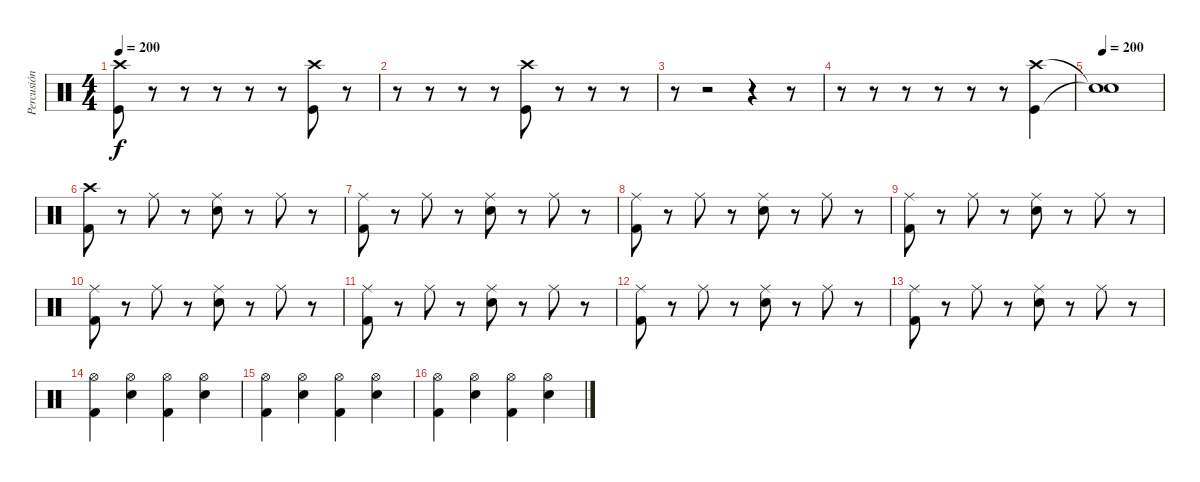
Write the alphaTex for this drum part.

\track ("Percusión" "Percusión") {instrument percussion}
\staff {score}
\articulation defaults
\ts (4 4)
\tempo 200
\clef neutral
\ks c
("Kick (hit)" "Crash high (hit)").8{dy f} r.8 r.8 r.8 r.8 r.8 ("Kick (hit)" "Crash high (hit)").8 r.8 |
r.8 r.8 r.8 r.8 ("Crash high (hit)" "Kick (hit)").8 r.8 r.8 r.8 |
r.8 r.2 r.4 r.8 |
r.8 r.8 r.8 r.8 r.8 r.8 ("Kick (hit)" "Crash high (hit)").4 |
\tempo 200
("Snare (hit)"{t} "Snare (hit)"{t}).1 |
("Crash high (hit)" "Kick (hit) 2").8 r.8 "Ride (middle)".8 r.8 ("Electric Snare (hit)" "Ride (middle)").8 r.8 "Ride (middle)".8 r.8 |
("Kick (hit) 2" "Ride (middle)").8 r.8 "Ride (middle)".8 r.8 ("Electric Snare (hit)" "Ride (middle)").8 r.8 "Ride (middle)".8 r.8 |
("Kick (hit) 2" "Ride (middle)").8 r.8 "Ride (middle)".8 r.8 ("Electric Snare (hit)" "Ride (middle)").8 r.8 "Ride (middle)".8 r.8 |
("Kick (hit) 2" "Ride (middle)").8 r.8 "Ride (middle)".8 r.8 ("Electric Snare (hit)" "Ride (middle)").8 r.8 "Ride (middle)".8 r.8 |
("Kick (hit) 2" "Ride (middle)").8 r.8 "Ride (middle)".8 r.8 ("Electric Snare (hit)" "Ride (middle)").8 r.8 "Ride (middle)".8 r.8 |
("Kick (hit) 2" "Ride (middle)").8 r.8 "Ride (middle)".8 r.8 ("Electric Snare (hit)" "Ride (middle)").8 r.8 "Ride (middle)".8 r.8 |
("Kick (hit) 2" "Ride (middle)").8 r.8 "Ride (middle)".8 r.8 ("Electric Snare (hit)" "Ride (middle)").8 r.8 "Ride (middle)".8 r.8 |
("Kick (hit) 2" "Ride (middle)").8 r.8 "Ride (middle)".8 r.8 ("Electric Snare (hit)" "Ride (middle)").8 r.8 "Ride (middle)".8 r.8 |
("Hi-Hat (open)" "Kick (hit) 2").4 ("Hi-Hat (open)" "Electric Snare (hit)").4 ("Hi-Hat (open)" "Kick (hit) 2").4 ("Hi-Hat (open)" "Electric Snare (hit)").4 |
("Hi-Hat (open)" "Kick (hit) 2").4 ("Hi-Hat (open)" "Electric Snare (hit)").4 ("Hi-Hat (open)" "Kick (hit) 2").4 ("Hi-Hat (open)" "Electric Snare (hit)").4 |
("Hi-Hat (open)" "Kick (hit) 2").4 ("Hi-Hat (open)" "Electric Snare (hit)").4 ("Hi-Hat (open)" "Kick (hit) 2").4 ("Hi-Hat (open)" "Electric Snare (hit)").4
